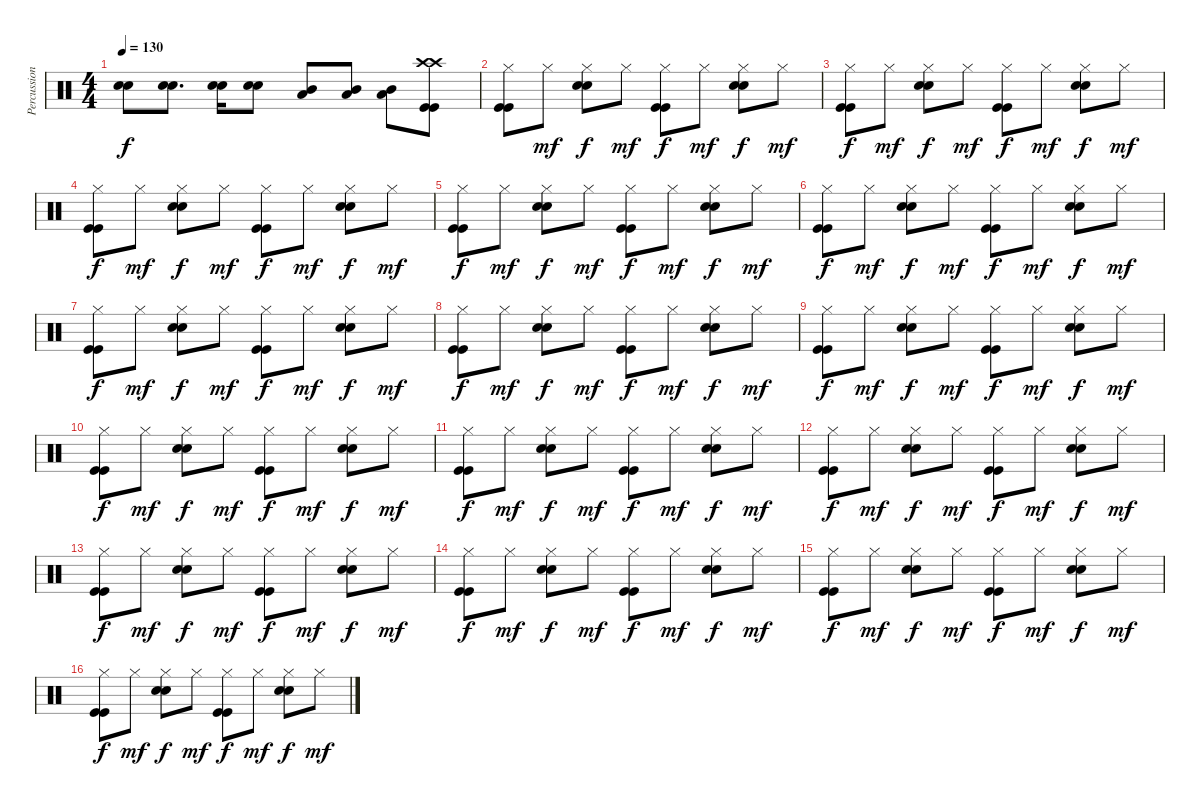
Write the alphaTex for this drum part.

\track ("Percussions" "Percussion") {instrument percussion}
\staff {score}
\articulation defaults
\ts (4 4)
\tempo 130
\clef neutral
\ks c
("Snare (hit) 2" "Snare (hit) 2").8{dy f} ("Snare (hit) 2" "Snare (hit) 2").8{d} ("Snare (hit) 2" "Snare (hit) 2").16 ("Snare (hit) 2" "Snare (hit) 2").8 ("Low Tom (hit)" "Mid Tom (hit)").8 ("Low Tom (hit)" "Mid Tom (hit)").8 ("Low Tom (hit)" "Mid Tom (hit)").8 ("Crash high (hit)" "Crash high (hit)" "Kick (hit)" "Kick (hit)").8 |
("Hi-Hat (closed)" "Kick (hit)" "Kick (hit)").8 "Hi-Hat (closed)".8{dy mf} ("Hi-Hat (closed)" "Snare (hit) 2" "Snare (hit) 2").8{dy f} "Hi-Hat (closed)".8{dy mf} ("Hi-Hat (closed)" "Kick (hit)" "Kick (hit)").8{dy f} "Hi-Hat (closed)".8{dy mf} ("Hi-Hat (closed)" "Snare (hit) 2" "Snare (hit) 2").8{dy f} "Hi-Hat (closed)".8{dy mf} |
("Hi-Hat (closed)" "Kick (hit)" "Kick (hit)").8{dy f} "Hi-Hat (closed)".8{dy mf} ("Hi-Hat (closed)" "Snare (hit) 2" "Snare (hit) 2").8{dy f} "Hi-Hat (closed)".8{dy mf} ("Hi-Hat (closed)" "Kick (hit)" "Kick (hit)").8{dy f} "Hi-Hat (closed)".8{dy mf} ("Hi-Hat (closed)" "Snare (hit) 2" "Snare (hit) 2").8{dy f} "Hi-Hat (closed)".8{dy mf} |
("Hi-Hat (closed)" "Kick (hit)" "Kick (hit)").8{dy f} "Hi-Hat (closed)".8{dy mf} ("Hi-Hat (closed)" "Snare (hit) 2" "Snare (hit) 2").8{dy f} "Hi-Hat (closed)".8{dy mf} ("Hi-Hat (closed)" "Kick (hit)" "Kick (hit)").8{dy f} "Hi-Hat (closed)".8{dy mf} ("Hi-Hat (closed)" "Snare (hit) 2" "Snare (hit) 2").8{dy f} "Hi-Hat (closed)".8{dy mf} |
("Hi-Hat (closed)" "Kick (hit)" "Kick (hit)").8{dy f} "Hi-Hat (closed)".8{dy mf} ("Hi-Hat (closed)" "Snare (hit) 2" "Snare (hit) 2").8{dy f} "Hi-Hat (closed)".8{dy mf} ("Hi-Hat (closed)" "Kick (hit)" "Kick (hit)").8{dy f} "Hi-Hat (closed)".8{dy mf} ("Hi-Hat (closed)" "Snare (hit) 2" "Snare (hit) 2").8{dy f} "Hi-Hat (closed)".8{dy mf} |
("Hi-Hat (closed)" "Kick (hit)" "Kick (hit)").8{dy f} "Hi-Hat (closed)".8{dy mf} ("Hi-Hat (closed)" "Snare (hit) 2" "Snare (hit) 2").8{dy f} "Hi-Hat (closed)".8{dy mf} ("Hi-Hat (closed)" "Kick (hit)" "Kick (hit)").8{dy f} "Hi-Hat (closed)".8{dy mf} ("Hi-Hat (closed)" "Snare (hit) 2" "Snare (hit) 2").8{dy f} "Hi-Hat (closed)".8{dy mf} |
("Hi-Hat (closed)" "Kick (hit)" "Kick (hit)").8{dy f} "Hi-Hat (closed)".8{dy mf} ("Hi-Hat (closed)" "Snare (hit) 2" "Snare (hit) 2").8{dy f} "Hi-Hat (closed)".8{dy mf} ("Hi-Hat (closed)" "Kick (hit)" "Kick (hit)").8{dy f} "Hi-Hat (closed)".8{dy mf} ("Hi-Hat (closed)" "Snare (hit) 2" "Snare (hit) 2").8{dy f} "Hi-Hat (closed)".8{dy mf} |
("Hi-Hat (closed)" "Kick (hit)" "Kick (hit)").8{dy f} "Hi-Hat (closed)".8{dy mf} ("Hi-Hat (closed)" "Snare (hit) 2" "Snare (hit) 2").8{dy f} "Hi-Hat (closed)".8{dy mf} ("Hi-Hat (closed)" "Kick (hit)" "Kick (hit)").8{dy f} "Hi-Hat (closed)".8{dy mf} ("Hi-Hat (closed)" "Snare (hit) 2" "Snare (hit) 2").8{dy f} "Hi-Hat (closed)".8{dy mf} |
("Hi-Hat (closed)" "Kick (hit)" "Kick (hit)").8{dy f} "Hi-Hat (closed)".8{dy mf} ("Hi-Hat (closed)" "Snare (hit) 2" "Snare (hit) 2").8{dy f} "Hi-Hat (closed)".8{dy mf} ("Hi-Hat (closed)" "Kick (hit)" "Kick (hit)").8{dy f} "Hi-Hat (closed)".8{dy mf} ("Hi-Hat (closed)" "Snare (hit) 2" "Snare (hit) 2").8{dy f} "Hi-Hat (closed)".8{dy mf} |
("Hi-Hat (closed)" "Kick (hit)" "Kick (hit)").8{dy f} "Hi-Hat (closed)".8{dy mf} ("Hi-Hat (closed)" "Snare (hit) 2" "Snare (hit) 2").8{dy f} "Hi-Hat (closed)".8{dy mf} ("Hi-Hat (closed)" "Kick (hit)" "Kick (hit)").8{dy f} "Hi-Hat (closed)".8{dy mf} ("Hi-Hat (closed)" "Snare (hit) 2" "Snare (hit) 2").8{dy f} "Hi-Hat (closed)".8{dy mf} |
("Hi-Hat (closed)" "Kick (hit)" "Kick (hit)").8{dy f} "Hi-Hat (closed)".8{dy mf} ("Hi-Hat (closed)" "Snare (hit) 2" "Snare (hit) 2").8{dy f} "Hi-Hat (closed)".8{dy mf} ("Hi-Hat (closed)" "Kick (hit)" "Kick (hit)").8{dy f} "Hi-Hat (closed)".8{dy mf} ("Hi-Hat (closed)" "Snare (hit) 2" "Snare (hit) 2").8{dy f} "Hi-Hat (closed)".8{dy mf} |
("Hi-Hat (closed)" "Kick (hit)" "Kick (hit)").8{dy f} "Hi-Hat (closed)".8{dy mf} ("Hi-Hat (closed)" "Snare (hit) 2" "Snare (hit) 2").8{dy f} "Hi-Hat (closed)".8{dy mf} ("Hi-Hat (closed)" "Kick (hit)" "Kick (hit)").8{dy f} "Hi-Hat (closed)".8{dy mf} ("Hi-Hat (closed)" "Snare (hit) 2" "Snare (hit) 2").8{dy f} "Hi-Hat (closed)".8{dy mf} |
("Hi-Hat (closed)" "Kick (hit)" "Kick (hit)").8{dy f} "Hi-Hat (closed)".8{dy mf} ("Hi-Hat (closed)" "Snare (hit) 2" "Snare (hit) 2").8{dy f} "Hi-Hat (closed)".8{dy mf} ("Hi-Hat (closed)" "Kick (hit)" "Kick (hit)").8{dy f} "Hi-Hat (closed)".8{dy mf} ("Hi-Hat (closed)" "Snare (hit) 2" "Snare (hit) 2").8{dy f} "Hi-Hat (closed)".8{dy mf} |
("Hi-Hat (closed)" "Kick (hit)" "Kick (hit)").8{dy f} "Hi-Hat (closed)".8{dy mf} ("Hi-Hat (closed)" "Snare (hit) 2" "Snare (hit) 2").8{dy f} "Hi-Hat (closed)".8{dy mf} ("Hi-Hat (closed)" "Kick (hit)" "Kick (hit)").8{dy f} "Hi-Hat (closed)".8{dy mf} ("Hi-Hat (closed)" "Snare (hit) 2" "Snare (hit) 2").8{dy f} "Hi-Hat (closed)".8{dy mf} |
("Hi-Hat (closed)" "Kick (hit)" "Kick (hit)").8{dy f} "Hi-Hat (closed)".8{dy mf} ("Hi-Hat (closed)" "Snare (hit) 2" "Snare (hit) 2").8{dy f} "Hi-Hat (closed)".8{dy mf} ("Hi-Hat (closed)" "Kick (hit)" "Kick (hit)").8{dy f} "Hi-Hat (closed)".8{dy mf} ("Hi-Hat (closed)" "Snare (hit) 2" "Snare (hit) 2").8{dy f} "Hi-Hat (closed)".8{dy mf} |
("Hi-Hat (closed)" "Kick (hit)" "Kick (hit)").8{dy f} "Hi-Hat (closed)".8{dy mf} ("Hi-Hat (closed)" "Snare (hit) 2" "Snare (hit) 2").8{dy f} "Hi-Hat (closed)".8{dy mf} ("Hi-Hat (closed)" "Kick (hit)" "Kick (hit)").8{dy f} "Hi-Hat (closed)".8{dy mf} ("Hi-Hat (closed)" "Snare (hit) 2" "Snare (hit) 2").8{dy f} "Hi-Hat (closed)".8{dy mf}
